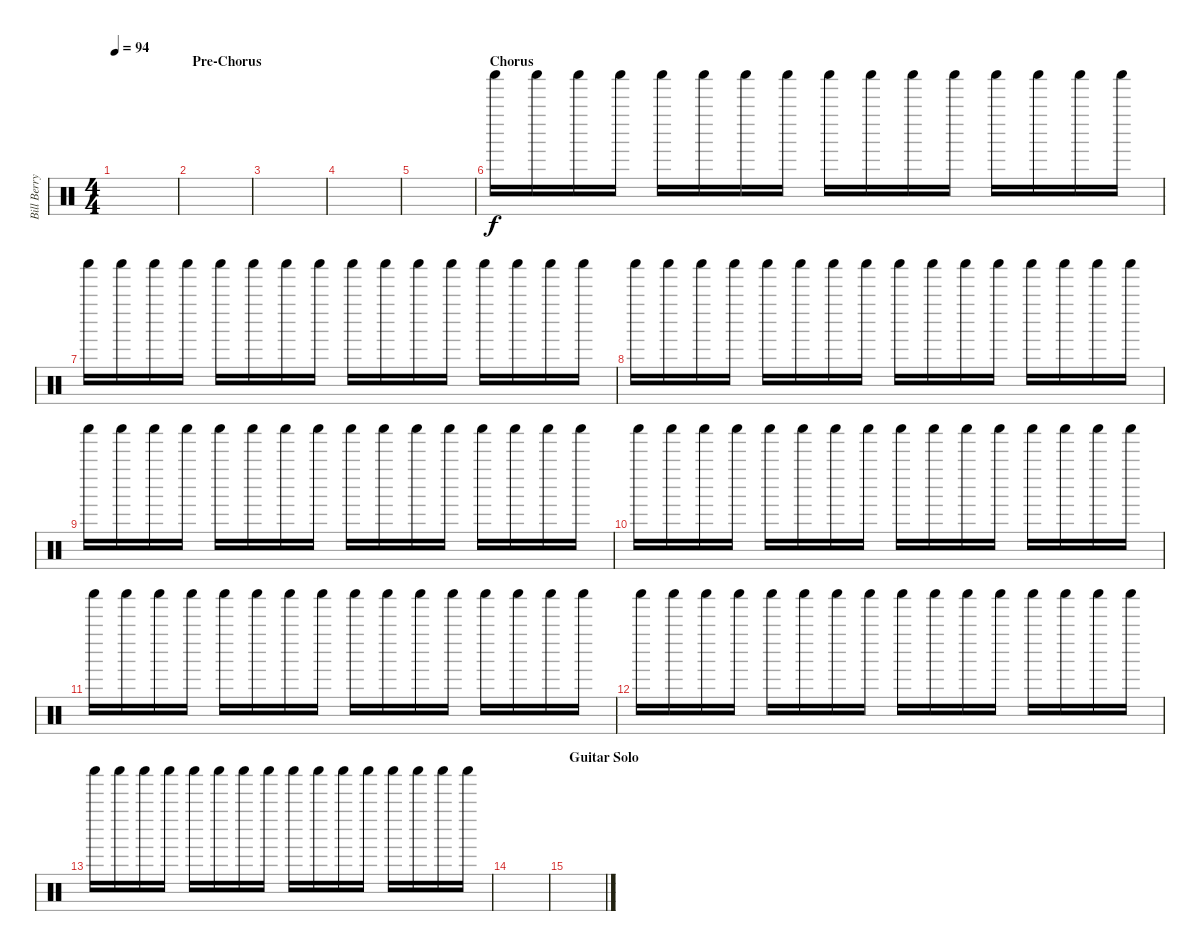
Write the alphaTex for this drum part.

\track ("Bill Berry (Percussion)" "Bill Berry") {instrument percussion}
\staff {score}
\articulation defaults
\ts (4 4)
\tempo 94
\clef neutral
\ks c
|
\section ("" "Pre-Chorus")
|
|
|
|
\section ("" "Chorus")
"Shaker (hit)".16 "Shaker (hit)".16 "Shaker (hit)".16 "Shaker (hit)".16 "Shaker (hit)".16 "Shaker (hit)".16 "Shaker (hit)".16 "Shaker (hit)".16 "Shaker (hit)".16 "Shaker (hit)".16 "Shaker (hit)".16 "Shaker (hit)".16 "Shaker (hit)".16 "Shaker (hit)".16 "Shaker (hit)".16 "Shaker (hit)".16 |
"Shaker (hit)".16 "Shaker (hit)".16 "Shaker (hit)".16 "Shaker (hit)".16 "Shaker (hit)".16 "Shaker (hit)".16 "Shaker (hit)".16 "Shaker (hit)".16 "Shaker (hit)".16 "Shaker (hit)".16 "Shaker (hit)".16 "Shaker (hit)".16 "Shaker (hit)".16 "Shaker (hit)".16 "Shaker (hit)".16 "Shaker (hit)".16 |
"Shaker (hit)".16 "Shaker (hit)".16 "Shaker (hit)".16 "Shaker (hit)".16 "Shaker (hit)".16 "Shaker (hit)".16 "Shaker (hit)".16 "Shaker (hit)".16 "Shaker (hit)".16 "Shaker (hit)".16 "Shaker (hit)".16 "Shaker (hit)".16 "Shaker (hit)".16 "Shaker (hit)".16 "Shaker (hit)".16 "Shaker (hit)".16 |
"Shaker (hit)".16 "Shaker (hit)".16 "Shaker (hit)".16 "Shaker (hit)".16 "Shaker (hit)".16 "Shaker (hit)".16 "Shaker (hit)".16 "Shaker (hit)".16 "Shaker (hit)".16 "Shaker (hit)".16 "Shaker (hit)".16 "Shaker (hit)".16 "Shaker (hit)".16 "Shaker (hit)".16 "Shaker (hit)".16 "Shaker (hit)".16 |
"Shaker (hit)".16 "Shaker (hit)".16 "Shaker (hit)".16 "Shaker (hit)".16 "Shaker (hit)".16 "Shaker (hit)".16 "Shaker (hit)".16 "Shaker (hit)".16 "Shaker (hit)".16 "Shaker (hit)".16 "Shaker (hit)".16 "Shaker (hit)".16 "Shaker (hit)".16 "Shaker (hit)".16 "Shaker (hit)".16 "Shaker (hit)".16 |
"Shaker (hit)".16 "Shaker (hit)".16 "Shaker (hit)".16 "Shaker (hit)".16 "Shaker (hit)".16 "Shaker (hit)".16 "Shaker (hit)".16 "Shaker (hit)".16 "Shaker (hit)".16 "Shaker (hit)".16 "Shaker (hit)".16 "Shaker (hit)".16 "Shaker (hit)".16 "Shaker (hit)".16 "Shaker (hit)".16 "Shaker (hit)".16 |
"Shaker (hit)".16 "Shaker (hit)".16 "Shaker (hit)".16 "Shaker (hit)".16 "Shaker (hit)".16 "Shaker (hit)".16 "Shaker (hit)".16 "Shaker (hit)".16 "Shaker (hit)".16 "Shaker (hit)".16 "Shaker (hit)".16 "Shaker (hit)".16 "Shaker (hit)".16 "Shaker (hit)".16 "Shaker (hit)".16 "Shaker (hit)".16 |
"Shaker (hit)".16 "Shaker (hit)".16 "Shaker (hit)".16 "Shaker (hit)".16 "Shaker (hit)".16 "Shaker (hit)".16 "Shaker (hit)".16 "Shaker (hit)".16 "Shaker (hit)".16 "Shaker (hit)".16 "Shaker (hit)".16 "Shaker (hit)".16 "Shaker (hit)".16 "Shaker (hit)".16 "Shaker (hit)".16 "Shaker (hit)".16 |
|
\section ("" "Guitar Solo")
